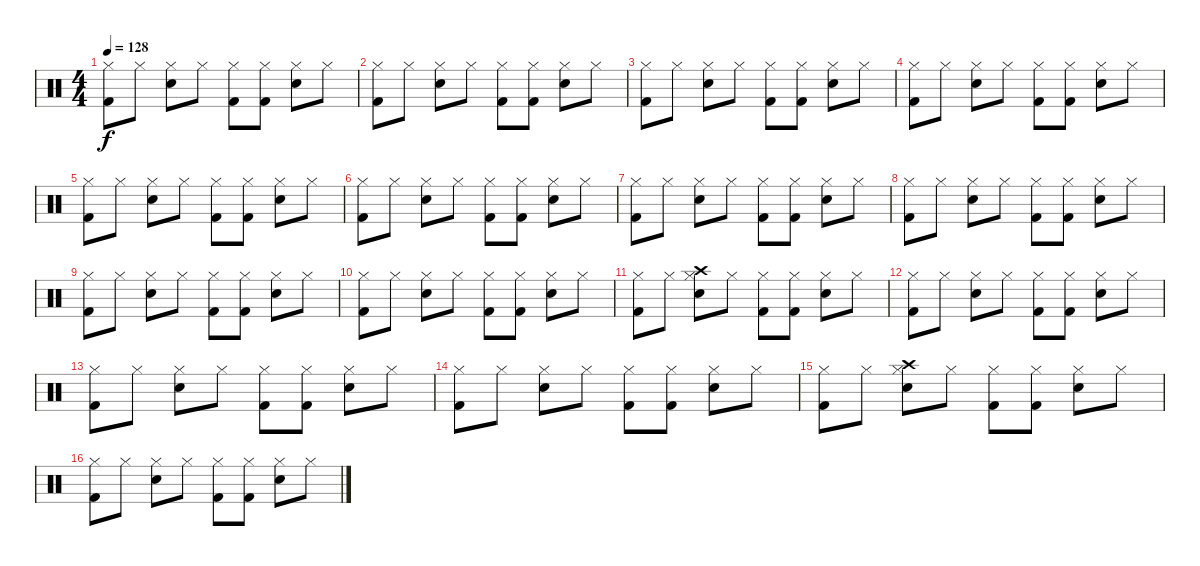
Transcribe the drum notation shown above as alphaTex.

\track "" {instrument percussion}
\staff {score}
\articulation defaults
\ts (4 4)
\tempo 128
\clef neutral
\ks c
("Hi-Hat (closed)" "Kick (hit) 2").8{dy f} "Hi-Hat (closed)".8 ("Hi-Hat (closed)" "Snare (hit) 2").8 "Hi-Hat (closed)".8 ("Hi-Hat (closed)" "Kick (hit) 2").8 ("Hi-Hat (closed)" "Kick (hit) 2").8 ("Hi-Hat (closed)" "Snare (hit) 2").8 "Hi-Hat (closed)".8 |
("Hi-Hat (closed)" "Kick (hit) 2").8 "Hi-Hat (closed)".8 ("Hi-Hat (closed)" "Snare (hit) 2").8 "Hi-Hat (closed)".8 ("Hi-Hat (closed)" "Kick (hit) 2").8 ("Hi-Hat (closed)" "Kick (hit) 2").8 ("Hi-Hat (closed)" "Snare (hit) 2").8 "Hi-Hat (closed)".8 |
("Hi-Hat (closed)" "Kick (hit) 2").8 "Hi-Hat (closed)".8 ("Hi-Hat (closed)" "Snare (hit) 2").8 "Hi-Hat (closed)".8 ("Hi-Hat (closed)" "Kick (hit) 2").8 ("Hi-Hat (closed)" "Kick (hit) 2").8 ("Hi-Hat (closed)" "Snare (hit) 2").8 "Hi-Hat (closed)".8 |
("Hi-Hat (closed)" "Kick (hit) 2").8 "Hi-Hat (closed)".8 ("Hi-Hat (closed)" "Snare (hit) 2").8 "Hi-Hat (closed)".8 ("Hi-Hat (closed)" "Kick (hit) 2").8 ("Hi-Hat (closed)" "Kick (hit) 2").8 ("Hi-Hat (closed)" "Snare (hit) 2").8 "Hi-Hat (closed)".8 |
("Hi-Hat (closed)" "Kick (hit) 2").8 "Hi-Hat (closed)".8 ("Hi-Hat (closed)" "Snare (hit) 2").8 "Hi-Hat (closed)".8 ("Hi-Hat (closed)" "Kick (hit) 2").8 ("Hi-Hat (closed)" "Kick (hit) 2").8 ("Hi-Hat (closed)" "Snare (hit) 2").8 "Hi-Hat (closed)".8 |
("Hi-Hat (closed)" "Kick (hit) 2").8 "Hi-Hat (closed)".8 ("Hi-Hat (closed)" "Snare (hit) 2").8 "Hi-Hat (closed)".8 ("Hi-Hat (closed)" "Kick (hit) 2").8 ("Hi-Hat (closed)" "Kick (hit) 2").8 ("Hi-Hat (closed)" "Snare (hit) 2").8 "Hi-Hat (closed)".8 |
("Hi-Hat (closed)" "Kick (hit) 2").8 "Hi-Hat (closed)".8 ("Hi-Hat (closed)" "Snare (hit) 2").8 "Hi-Hat (closed)".8 ("Hi-Hat (closed)" "Kick (hit) 2").8 ("Hi-Hat (closed)" "Kick (hit) 2").8 ("Hi-Hat (closed)" "Snare (hit) 2").8 "Hi-Hat (closed)".8 |
("Hi-Hat (closed)" "Kick (hit) 2").8 "Hi-Hat (closed)".8 ("Hi-Hat (closed)" "Snare (hit) 2").8 "Hi-Hat (closed)".8 ("Hi-Hat (closed)" "Kick (hit) 2").8 ("Hi-Hat (closed)" "Kick (hit) 2").8 ("Hi-Hat (closed)" "Snare (hit) 2").8 "Hi-Hat (closed)".8 |
("Hi-Hat (closed)" "Kick (hit) 2").8 "Hi-Hat (closed)".8 ("Hi-Hat (closed)" "Snare (hit) 2").8 "Hi-Hat (closed)".8 ("Hi-Hat (closed)" "Kick (hit) 2").8 ("Hi-Hat (closed)" "Kick (hit) 2").8 ("Hi-Hat (closed)" "Snare (hit) 2").8 "Hi-Hat (closed)".8 |
("Hi-Hat (closed)" "Kick (hit) 2").8 "Hi-Hat (closed)".8 ("Hi-Hat (closed)" "Snare (hit) 2").8 "Hi-Hat (closed)".8 ("Hi-Hat (closed)" "Kick (hit) 2").8 ("Hi-Hat (closed)" "Kick (hit) 2").8 ("Hi-Hat (closed)" "Snare (hit) 2").8 "Hi-Hat (closed)".8 |
("Hi-Hat (closed)" "Kick (hit) 2").8 "Hi-Hat (closed)".8 ("Hi-Hat (closed)" "Crash high (hit)" "Snare (hit) 2").8 "Hi-Hat (closed)".8 ("Hi-Hat (closed)" "Kick (hit) 2").8 ("Hi-Hat (closed)" "Kick (hit) 2").8 ("Hi-Hat (closed)" "Snare (hit) 2").8 "Hi-Hat (closed)".8 |
("Hi-Hat (closed)" "Kick (hit) 2").8 "Hi-Hat (closed)".8 ("Hi-Hat (closed)" "Snare (hit) 2").8 "Hi-Hat (closed)".8 ("Hi-Hat (closed)" "Kick (hit) 2").8 ("Hi-Hat (closed)" "Kick (hit) 2").8 ("Hi-Hat (closed)" "Snare (hit) 2").8 "Hi-Hat (closed)".8 |
("Hi-Hat (closed)" "Kick (hit) 2").8 "Hi-Hat (closed)".8 ("Hi-Hat (closed)" "Snare (hit) 2").8 "Hi-Hat (closed)".8 ("Hi-Hat (closed)" "Kick (hit) 2").8 ("Hi-Hat (closed)" "Kick (hit) 2").8 ("Hi-Hat (closed)" "Snare (hit) 2").8 "Hi-Hat (closed)".8 |
("Hi-Hat (closed)" "Kick (hit) 2").8 "Hi-Hat (closed)".8 ("Hi-Hat (closed)" "Snare (hit) 2").8 "Hi-Hat (closed)".8 ("Hi-Hat (closed)" "Kick (hit) 2").8 ("Hi-Hat (closed)" "Kick (hit) 2").8 ("Hi-Hat (closed)" "Snare (hit) 2").8 "Hi-Hat (closed)".8 |
("Hi-Hat (closed)" "Kick (hit) 2").8 "Hi-Hat (closed)".8 ("Hi-Hat (closed)" "Crash high (hit)" "Snare (hit) 2").8 "Hi-Hat (closed)".8 ("Hi-Hat (closed)" "Kick (hit) 2").8 ("Hi-Hat (closed)" "Kick (hit) 2").8 ("Hi-Hat (closed)" "Snare (hit) 2").8 "Hi-Hat (closed)".8 |
("Hi-Hat (closed)" "Kick (hit) 2").8 "Hi-Hat (closed)".8 ("Hi-Hat (closed)" "Snare (hit) 2").8 "Hi-Hat (closed)".8 ("Hi-Hat (closed)" "Kick (hit) 2").8 ("Hi-Hat (closed)" "Kick (hit) 2").8 ("Hi-Hat (closed)" "Snare (hit) 2").8 "Hi-Hat (closed)".8
